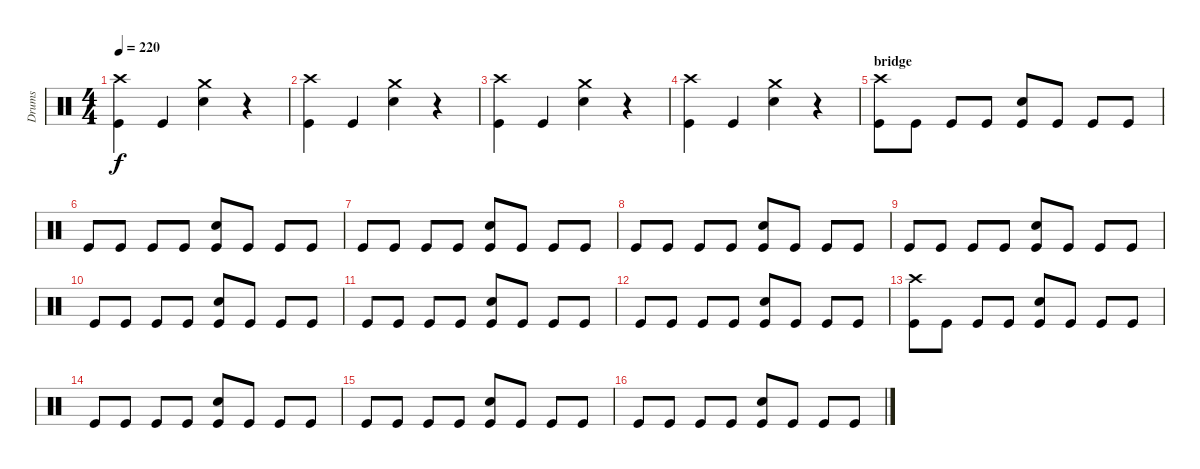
\track ("Drums" "Drums") {instrument percussion}
\staff {score}
\articulation defaults
\ts (4 4)
\tempo 220
\clef neutral
\ks c
("Crash high (hit)" "Kick (hit)").4{dy f} "Kick (hit)".4 ("Crash medium (hit)" "Electric Snare (hit)").4 r.4 |
("Crash high (hit)" "Kick (hit)").4 "Kick (hit)".4 ("Crash medium (hit)" "Electric Snare (hit)").4 r.4 |
("Crash high (hit)" "Kick (hit)").4 "Kick (hit)".4 ("Crash medium (hit)" "Electric Snare (hit)").4 r.4 |
("Crash high (hit)" "Kick (hit)").4 "Kick (hit)".4 ("Crash medium (hit)" "Electric Snare (hit)").4 r.4 |
\section ("" "bridge")
("Crash high (hit)" "Kick (hit)").8 "Kick (hit)".8 "Kick (hit)"{x}.8 "Kick (hit)".8 ("Electric Snare (hit)" "Kick (hit)").8 "Kick (hit)".8 "Kick (hit)"{x}.8 "Kick (hit)".8 |
"Kick (hit)".8 "Kick (hit)".8 "Kick (hit)"{x}.8 "Kick (hit)".8 ("Electric Snare (hit)" "Kick (hit)").8 "Kick (hit)".8 "Kick (hit)"{x}.8 "Kick (hit)".8 |
"Kick (hit)".8 "Kick (hit)".8 "Kick (hit)"{x}.8 "Kick (hit)".8 ("Electric Snare (hit)" "Kick (hit)").8 "Kick (hit)".8 "Kick (hit)"{x}.8 "Kick (hit)".8 |
"Kick (hit)".8 "Kick (hit)".8 "Kick (hit)"{x}.8 "Kick (hit)".8 ("Electric Snare (hit)" "Kick (hit)").8 "Kick (hit)".8 "Kick (hit)"{x}.8 "Kick (hit)".8 |
"Kick (hit)".8 "Kick (hit)".8 "Kick (hit)"{x}.8 "Kick (hit)".8 ("Electric Snare (hit)" "Kick (hit)").8 "Kick (hit)".8 "Kick (hit)"{x}.8 "Kick (hit)".8 |
"Kick (hit)".8 "Kick (hit)".8 "Kick (hit)"{x}.8 "Kick (hit)".8 ("Electric Snare (hit)" "Kick (hit)").8 "Kick (hit)".8 "Kick (hit)"{x}.8 "Kick (hit)".8 |
"Kick (hit)".8 "Kick (hit)".8 "Kick (hit)"{x}.8 "Kick (hit)".8 ("Electric Snare (hit)" "Kick (hit)").8 "Kick (hit)".8 "Kick (hit)"{x}.8 "Kick (hit)".8 |
"Kick (hit)".8 "Kick (hit)".8 "Kick (hit)"{x}.8 "Kick (hit)".8 ("Electric Snare (hit)" "Kick (hit)").8 "Kick (hit)".8 "Kick (hit)"{x}.8 "Kick (hit)".8 |
("Crash high (hit)" "Kick (hit)").8 "Kick (hit)".8 "Kick (hit)"{x}.8 "Kick (hit)".8 ("Electric Snare (hit)" "Kick (hit)").8 "Kick (hit)".8 "Kick (hit)"{x}.8 "Kick (hit)".8 |
"Kick (hit)".8 "Kick (hit)".8 "Kick (hit)"{x}.8 "Kick (hit)".8 ("Electric Snare (hit)" "Kick (hit)").8 "Kick (hit)".8 "Kick (hit)"{x}.8 "Kick (hit)".8 |
"Kick (hit)".8 "Kick (hit)".8 "Kick (hit)"{x}.8 "Kick (hit)".8 ("Electric Snare (hit)" "Kick (hit)").8 "Kick (hit)".8 "Kick (hit)"{x}.8 "Kick (hit)".8 |
"Kick (hit)".8 "Kick (hit)".8 "Kick (hit)"{x}.8 "Kick (hit)".8 ("Electric Snare (hit)" "Kick (hit)").8 "Kick (hit)".8 "Kick (hit)"{x}.8 "Kick (hit)".8
